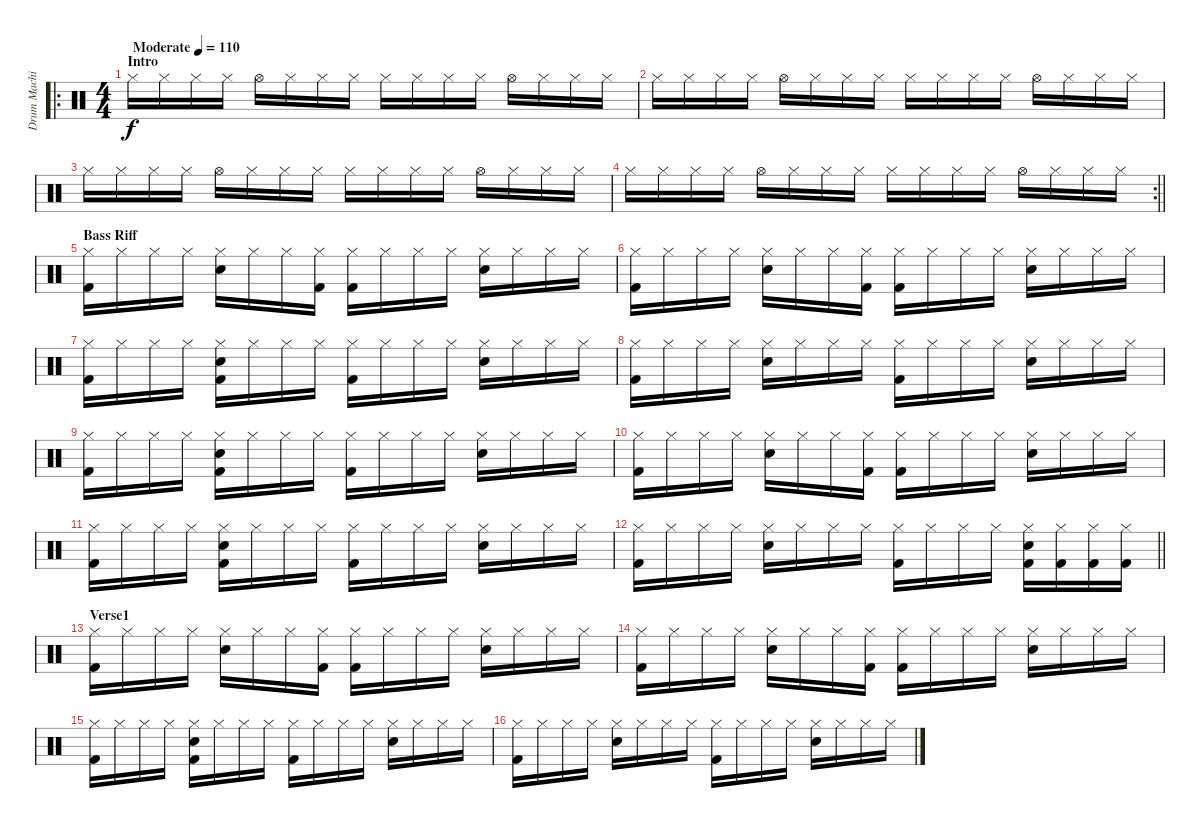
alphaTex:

\track ("Drum Machine" "Drum Machi") {instrument percussion}
\staff {score}
\articulation defaults
\ro
\ts (4 4)
\section ("" "Intro")
\tempo (110 "Moderate")
\clef neutral
\ks c "Hi-Hat (closed)".16{dy f} "Hi-Hat (closed)".16 "Hi-Hat (closed)".16 "Hi-Hat (closed)".16 "Hi-Hat (open)".16 "Hi-Hat (closed)".16 "Hi-Hat (closed)".16 "Hi-Hat (closed)".16 "Hi-Hat (closed)".16 "Hi-Hat (closed)".16 "Hi-Hat (closed)".16 "Hi-Hat (closed)".16 "Hi-Hat (open)".16 "Hi-Hat (closed)".16 "Hi-Hat (closed)".16 "Hi-Hat (closed)".16
|
"Hi-Hat (closed)".16 "Hi-Hat (closed)".16 "Hi-Hat (closed)".16 "Hi-Hat (closed)".16 "Hi-Hat (open)".16 "Hi-Hat (closed)".16 "Hi-Hat (closed)".16 "Hi-Hat (closed)".16 "Hi-Hat (closed)".16 "Hi-Hat (closed)".16 "Hi-Hat (closed)".16 "Hi-Hat (closed)".16 "Hi-Hat (open)".16 "Hi-Hat (closed)".16 "Hi-Hat (closed)".16 "Hi-Hat (closed)".16 |
"Hi-Hat (closed)".16 "Hi-Hat (closed)".16 "Hi-Hat (closed)".16 "Hi-Hat (closed)".16 "Hi-Hat (open)".16 "Hi-Hat (closed)".16 "Hi-Hat (closed)".16 "Hi-Hat (closed)".16 "Hi-Hat (closed)".16 "Hi-Hat (closed)".16 "Hi-Hat (closed)".16 "Hi-Hat (closed)".16 "Hi-Hat (open)".16 "Hi-Hat (closed)".16 "Hi-Hat (closed)".16 "Hi-Hat (closed)".16 |
\rc 2
\barLineRight lightlight "Hi-Hat (closed)".16 "Hi-Hat (closed)".16 "Hi-Hat (closed)".16 "Hi-Hat (closed)".16 "Hi-Hat (open)".16 "Hi-Hat (closed)".16 "Hi-Hat (closed)".16 "Hi-Hat (closed)".16 "Hi-Hat (closed)".16 "Hi-Hat (closed)".16 "Hi-Hat (closed)".16 "Hi-Hat (closed)".16 "Hi-Hat (open)".16 "Hi-Hat (closed)".16 "Hi-Hat (closed)".16 "Hi-Hat (closed)".16
|
\section ("" "Bass Riff")
("Hi-Hat (closed)" "Kick (hit) 2").16{volume 10} "Hi-Hat (closed)".16 "Hi-Hat (closed)".16 "Hi-Hat (closed)".16 ("Hi-Hat (closed)" "Hand Clap (hit)").16 "Hi-Hat (closed)".16 "Hi-Hat (closed)".16 ("Hi-Hat (closed)" "Kick (hit) 2").16 ("Hi-Hat (closed)" "Kick (hit) 2").16 "Hi-Hat (closed)".16 "Hi-Hat (closed)".16 "Hi-Hat (closed)".16 ("Hi-Hat (closed)" "Hand Clap (hit)").16 "Hi-Hat (closed)".16 "Hi-Hat (closed)".16 "Hi-Hat (closed)".16 |
("Hi-Hat (closed)" "Kick (hit) 2").16 "Hi-Hat (closed)".16 "Hi-Hat (closed)".16 "Hi-Hat (closed)".16 ("Hi-Hat (closed)" "Hand Clap (hit)").16 "Hi-Hat (closed)".16 "Hi-Hat (closed)".16 ("Hi-Hat (closed)" "Kick (hit) 2").16 ("Hi-Hat (closed)" "Kick (hit) 2").16 "Hi-Hat (closed)".16 "Hi-Hat (closed)".16 "Hi-Hat (closed)".16 ("Hi-Hat (closed)" "Hand Clap (hit)").16 "Hi-Hat (closed)".16 "Hi-Hat (closed)".16 "Hi-Hat (closed)".16 |
("Hi-Hat (closed)" "Kick (hit) 2").16 "Hi-Hat (closed)".16 "Hi-Hat (closed)".16 "Hi-Hat (closed)".16 ("Hi-Hat (closed)" "Hand Clap (hit)" "Kick (hit) 2").16 "Hi-Hat (closed)".16 "Hi-Hat (closed)".16 "Hi-Hat (closed)".16 ("Hi-Hat (closed)" "Kick (hit) 2").16 "Hi-Hat (closed)".16 "Hi-Hat (closed)".16 "Hi-Hat (closed)".16 ("Hi-Hat (closed)" "Hand Clap (hit)").16 "Hi-Hat (closed)".16 "Hi-Hat (closed)".16 "Hi-Hat (closed)".16 |
("Hi-Hat (closed)" "Kick (hit) 2").16 "Hi-Hat (closed)".16 "Hi-Hat (closed)".16 "Hi-Hat (closed)".16 ("Hi-Hat (closed)" "Hand Clap (hit)").16 "Hi-Hat (closed)".16 "Hi-Hat (closed)".16 "Hi-Hat (closed)".16 ("Hi-Hat (closed)" "Kick (hit) 2").16 "Hi-Hat (closed)".16 "Hi-Hat (closed)".16 "Hi-Hat (closed)".16 ("Hi-Hat (closed)" "Hand Clap (hit)").16 "Hi-Hat (closed)".16 "Hi-Hat (closed)".16 "Hi-Hat (closed)".16 |
("Hi-Hat (closed)" "Kick (hit) 2").16{volume 10} "Hi-Hat (closed)".16 "Hi-Hat (closed)".16 "Hi-Hat (closed)".16 ("Hi-Hat (closed)" "Hand Clap (hit)" "Kick (hit) 2").16 "Hi-Hat (closed)".16 "Hi-Hat (closed)".16 "Hi-Hat (closed)".16 ("Hi-Hat (closed)" "Kick (hit) 2").16 "Hi-Hat (closed)".16 "Hi-Hat (closed)".16 "Hi-Hat (closed)".16 ("Hi-Hat (closed)" "Hand Clap (hit)").16 "Hi-Hat (closed)".16 "Hi-Hat (closed)".16 "Hi-Hat (closed)".16 |
("Hi-Hat (closed)" "Kick (hit) 2").16 "Hi-Hat (closed)".16 "Hi-Hat (closed)".16 "Hi-Hat (closed)".16 ("Hi-Hat (closed)" "Hand Clap (hit)").16 "Hi-Hat (closed)".16 "Hi-Hat (closed)".16 ("Hi-Hat (closed)" "Kick (hit) 2").16 ("Hi-Hat (closed)" "Kick (hit) 2").16 "Hi-Hat (closed)".16 "Hi-Hat (closed)".16 "Hi-Hat (closed)".16 ("Hi-Hat (closed)" "Hand Clap (hit)").16 "Hi-Hat (closed)".16 "Hi-Hat (closed)".16 "Hi-Hat (closed)".16 |
("Hi-Hat (closed)" "Kick (hit) 2").16 "Hi-Hat (closed)".16 "Hi-Hat (closed)".16 "Hi-Hat (closed)".16 ("Hi-Hat (closed)" "Hand Clap (hit)" "Kick (hit) 2").16 "Hi-Hat (closed)".16 "Hi-Hat (closed)".16 "Hi-Hat (closed)".16 ("Hi-Hat (closed)" "Kick (hit) 2").16 "Hi-Hat (closed)".16 "Hi-Hat (closed)".16 "Hi-Hat (closed)".16 ("Hi-Hat (closed)" "Hand Clap (hit)").16 "Hi-Hat (closed)".16 "Hi-Hat (closed)".16 "Hi-Hat (closed)".16 |
\barLineRight lightlight
("Hi-Hat (closed)" "Kick (hit) 2").16 "Hi-Hat (closed)".16 "Hi-Hat (closed)".16 "Hi-Hat (closed)".16 ("Hi-Hat (closed)" "Hand Clap (hit)").16 "Hi-Hat (closed)".16 "Hi-Hat (closed)".16 "Hi-Hat (closed)".16 ("Hi-Hat (closed)" "Kick (hit) 2").16 "Hi-Hat (closed)".16 "Hi-Hat (closed)".16 "Hi-Hat (closed)".16 ("Hi-Hat (closed)" "Hand Clap (hit)" "Kick (hit) 2").16 ("Hi-Hat (closed)" "Kick (hit) 2").16 ("Hi-Hat (closed)" "Kick (hit) 2").16 ("Hi-Hat (closed)" "Kick (hit) 2").16 |
\section ("" "Verse1")
("Hi-Hat (closed)" "Kick (hit) 2").16 "Hi-Hat (closed)".16 "Hi-Hat (closed)".16 "Hi-Hat (closed)".16 ("Hi-Hat (closed)" "Hand Clap (hit)").16 "Hi-Hat (closed)".16 "Hi-Hat (closed)".16 ("Hi-Hat (closed)" "Kick (hit) 2").16 ("Hi-Hat (closed)" "Kick (hit) 2").16 "Hi-Hat (closed)".16 "Hi-Hat (closed)".16 "Hi-Hat (closed)".16 ("Hi-Hat (closed)" "Hand Clap (hit)").16 "Hi-Hat (closed)".16 "Hi-Hat (closed)".16 "Hi-Hat (closed)".16 |
("Hi-Hat (closed)" "Kick (hit) 2").16 "Hi-Hat (closed)".16 "Hi-Hat (closed)".16 "Hi-Hat (closed)".16 ("Hi-Hat (closed)" "Hand Clap (hit)").16 "Hi-Hat (closed)".16 "Hi-Hat (closed)".16 ("Hi-Hat (closed)" "Kick (hit) 2").16 ("Hi-Hat (closed)" "Kick (hit) 2").16 "Hi-Hat (closed)".16 "Hi-Hat (closed)".16 "Hi-Hat (closed)".16 ("Hi-Hat (closed)" "Hand Clap (hit)").16 "Hi-Hat (closed)".16 "Hi-Hat (closed)".16 "Hi-Hat (closed)".16 |
("Hi-Hat (closed)" "Kick (hit) 2").16 "Hi-Hat (closed)".16 "Hi-Hat (closed)".16 "Hi-Hat (closed)".16 ("Hi-Hat (closed)" "Hand Clap (hit)" "Kick (hit) 2").16 "Hi-Hat (closed)".16 "Hi-Hat (closed)".16 "Hi-Hat (closed)".16 ("Hi-Hat (closed)" "Kick (hit) 2").16 "Hi-Hat (closed)".16 "Hi-Hat (closed)".16 "Hi-Hat (closed)".16 ("Hi-Hat (closed)" "Hand Clap (hit)").16 "Hi-Hat (closed)".16 "Hi-Hat (closed)".16 "Hi-Hat (closed)".16 |
("Hi-Hat (closed)" "Kick (hit) 2").16 "Hi-Hat (closed)".16 "Hi-Hat (closed)".16 "Hi-Hat (closed)".16 ("Hi-Hat (closed)" "Hand Clap (hit)").16 "Hi-Hat (closed)".16 "Hi-Hat (closed)".16 "Hi-Hat (closed)".16 ("Hi-Hat (closed)" "Kick (hit) 2").16 "Hi-Hat (closed)".16 "Hi-Hat (closed)".16 "Hi-Hat (closed)".16 ("Hi-Hat (closed)" "Hand Clap (hit)").16 "Hi-Hat (closed)".16 "Hi-Hat (closed)".16 "Hi-Hat (closed)".16
